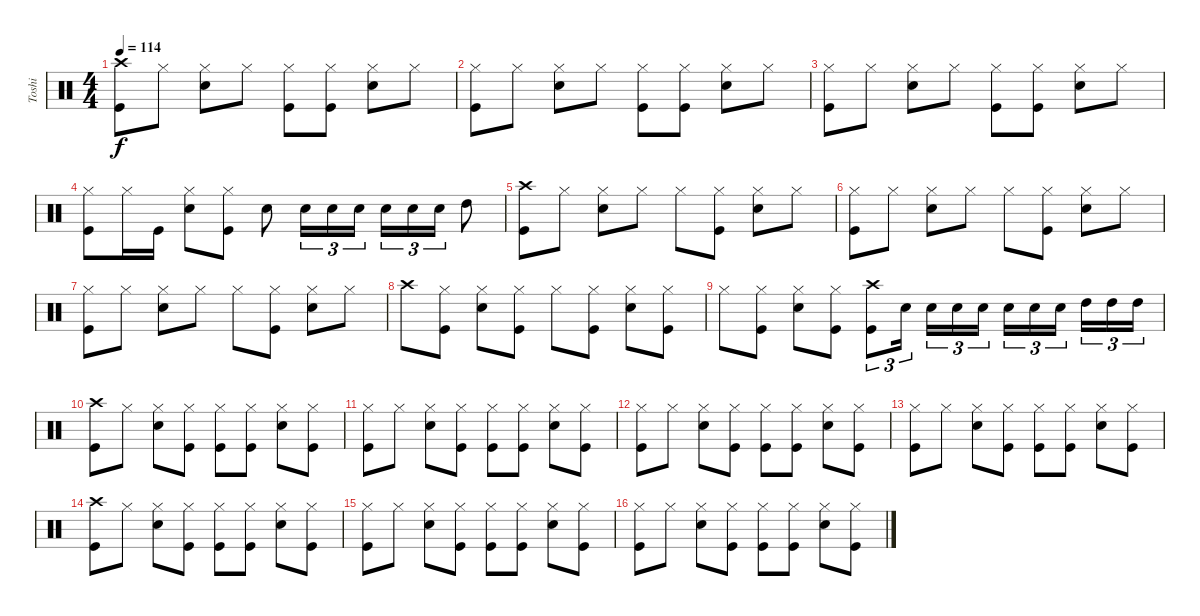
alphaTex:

\track ("Toshi" "Toshi") {instrument percussion}
\staff {score}
\articulation defaults
\ts (4 4)
\tempo 114
\clef neutral
\ks c
("Crash high (hit)" "Kick (hit)").8{dy f} "Hi-Hat (closed)".8 ("Hi-Hat (closed)" "Snare (hit) 2").8 "Hi-Hat (closed)".8 ("Hi-Hat (closed)" "Kick (hit)").8 ("Hi-Hat (closed)" "Kick (hit)").8 ("Hi-Hat (closed)" "Snare (hit) 2").8 "Hi-Hat (closed)".8 |
("Hi-Hat (closed)" "Kick (hit)").8 "Hi-Hat (closed)".8 ("Hi-Hat (closed)" "Snare (hit) 2").8 "Hi-Hat (closed)".8 ("Hi-Hat (closed)" "Kick (hit)").8 ("Hi-Hat (closed)" "Kick (hit)").8 ("Hi-Hat (closed)" "Snare (hit) 2").8 "Hi-Hat (closed)".8 |
("Hi-Hat (closed)" "Kick (hit)").8 "Hi-Hat (closed)".8 ("Hi-Hat (closed)" "Snare (hit) 2").8 "Hi-Hat (closed)".8 ("Hi-Hat (closed)" "Kick (hit)").8 ("Hi-Hat (closed)" "Kick (hit)").8 ("Hi-Hat (closed)" "Snare (hit) 2").8 "Hi-Hat (closed)".8 |
("Hi-Hat (closed)" "Kick (hit)").8 "Hi-Hat (closed)".16 "Kick (hit)".16 ("Hi-Hat (closed)" "Snare (hit) 2").8 ("Hi-Hat (closed)" "Kick (hit)").8 "Snare (hit) 2".8 "Snare (hit) 2".16{tu (3 2)} "Snare (hit) 2".16{tu (3 2)} "Snare (hit) 2".16{tu (3 2)} "Snare (hit) 2".16{tu (3 2)} "Snare (hit) 2".16{tu (3 2)} "Snare (hit) 2".16{tu (3 2)} "High Tom (hit)".8 |
("Crash high (hit)" "Kick (hit)").8 "Hi-Hat (closed)".8 ("Hi-Hat (closed)" "Snare (hit) 2").8 "Hi-Hat (closed)".8 "Hi-Hat (closed)".8 ("Hi-Hat (closed)" "Kick (hit)").8 ("Hi-Hat (closed)" "Snare (hit) 2").8 "Hi-Hat (closed)".8 |
("Hi-Hat (closed)" "Kick (hit)").8 "Hi-Hat (closed)".8 ("Hi-Hat (closed)" "Snare (hit) 2").8 "Hi-Hat (closed)".8 "Hi-Hat (closed)".8 ("Hi-Hat (closed)" "Kick (hit)").8 ("Hi-Hat (closed)" "Snare (hit) 2").8 "Hi-Hat (closed)".8 |
("Hi-Hat (closed)" "Kick (hit)").8 "Hi-Hat (closed)".8 ("Hi-Hat (closed)" "Snare (hit) 2").8 "Hi-Hat (closed)".8 "Hi-Hat (closed)".8 ("Hi-Hat (closed)" "Kick (hit)").8 ("Hi-Hat (closed)" "Snare (hit) 2").8 "Hi-Hat (closed)".8 |
"Crash high (hit)".8 ("Hi-Hat (closed)" "Kick (hit)").8 ("Hi-Hat (closed)" "Snare (hit) 2").8 ("Hi-Hat (closed)" "Kick (hit)").8 "Hi-Hat (closed)".8 ("Hi-Hat (closed)" "Kick (hit)").8 ("Hi-Hat (closed)" "Snare (hit) 2").8 ("Hi-Hat (closed)" "Kick (hit)").8 |
"Hi-Hat (closed)".8 ("Hi-Hat (closed)" "Kick (hit)").8 ("Hi-Hat (closed)" "Snare (hit) 2").8 ("Hi-Hat (closed)" "Kick (hit)").8 ("Crash high (hit)" "Kick (hit)").8{tu (3 2)} "Snare (hit) 2".16{tu (3 2)} "Snare (hit) 2".16{tu (3 2)} "Snare (hit) 2".16{tu (3 2)} "Snare (hit) 2".16{tu (3 2)} "Snare (hit) 2".16{tu (3 2)} "Snare (hit) 2".16{tu (3 2)} "Snare (hit) 2".16{tu (3 2)} "High Tom (hit)".16{tu (3 2)} "High Tom (hit)".16{tu (3 2)} "High Tom (hit)".16{tu (3 2)} |
("Crash high (hit)" "Kick (hit)").8 "Hi-Hat (closed)".8 ("Hi-Hat (closed)" "Snare (hit) 2").8 ("Hi-Hat (closed)" "Kick (hit)").8 ("Hi-Hat (closed)" "Kick (hit)").8 ("Hi-Hat (closed)" "Kick (hit)").8 ("Hi-Hat (closed)" "Snare (hit) 2").8 ("Hi-Hat (closed)" "Kick (hit)").8 |
("Hi-Hat (closed)" "Kick (hit)").8 "Hi-Hat (closed)".8 ("Hi-Hat (closed)" "Snare (hit) 2").8 ("Hi-Hat (closed)" "Kick (hit)").8 ("Hi-Hat (closed)" "Kick (hit)").8 ("Hi-Hat (closed)" "Kick (hit)").8 ("Hi-Hat (closed)" "Snare (hit) 2").8 ("Hi-Hat (closed)" "Kick (hit)").8 |
("Hi-Hat (closed)" "Kick (hit)").8 "Hi-Hat (closed)".8 ("Hi-Hat (closed)" "Snare (hit) 2").8 ("Hi-Hat (closed)" "Kick (hit)").8 ("Hi-Hat (closed)" "Kick (hit)").8 ("Hi-Hat (closed)" "Kick (hit)").8 ("Hi-Hat (closed)" "Snare (hit) 2").8 ("Hi-Hat (closed)" "Kick (hit)").8 |
("Hi-Hat (closed)" "Kick (hit)").8 "Hi-Hat (closed)".8 ("Hi-Hat (closed)" "Snare (hit) 2").8 ("Hi-Hat (closed)" "Kick (hit)").8 ("Hi-Hat (closed)" "Kick (hit)").8 ("Hi-Hat (closed)" "Kick (hit)").8 ("Hi-Hat (closed)" "Snare (hit) 2").8 ("Hi-Hat (closed)" "Kick (hit)").8 |
("Crash high (hit)" "Kick (hit)").8 "Hi-Hat (closed)".8 ("Hi-Hat (closed)" "Snare (hit) 2").8 ("Hi-Hat (closed)" "Kick (hit)").8 ("Hi-Hat (closed)" "Kick (hit)").8 ("Hi-Hat (closed)" "Kick (hit)").8 ("Hi-Hat (closed)" "Snare (hit) 2").8 ("Hi-Hat (closed)" "Kick (hit)").8 |
("Hi-Hat (closed)" "Kick (hit)").8 "Hi-Hat (closed)".8 ("Hi-Hat (closed)" "Snare (hit) 2").8 ("Hi-Hat (closed)" "Kick (hit)").8 ("Hi-Hat (closed)" "Kick (hit)").8 ("Hi-Hat (closed)" "Kick (hit)").8 ("Hi-Hat (closed)" "Snare (hit) 2").8 ("Hi-Hat (closed)" "Kick (hit)").8 |
("Hi-Hat (closed)" "Kick (hit)").8 "Hi-Hat (closed)".8 ("Hi-Hat (closed)" "Snare (hit) 2").8 ("Hi-Hat (closed)" "Kick (hit)").8 ("Hi-Hat (closed)" "Kick (hit)").8 ("Hi-Hat (closed)" "Kick (hit)").8 ("Hi-Hat (closed)" "Snare (hit) 2").8 ("Hi-Hat (closed)" "Kick (hit)").8
